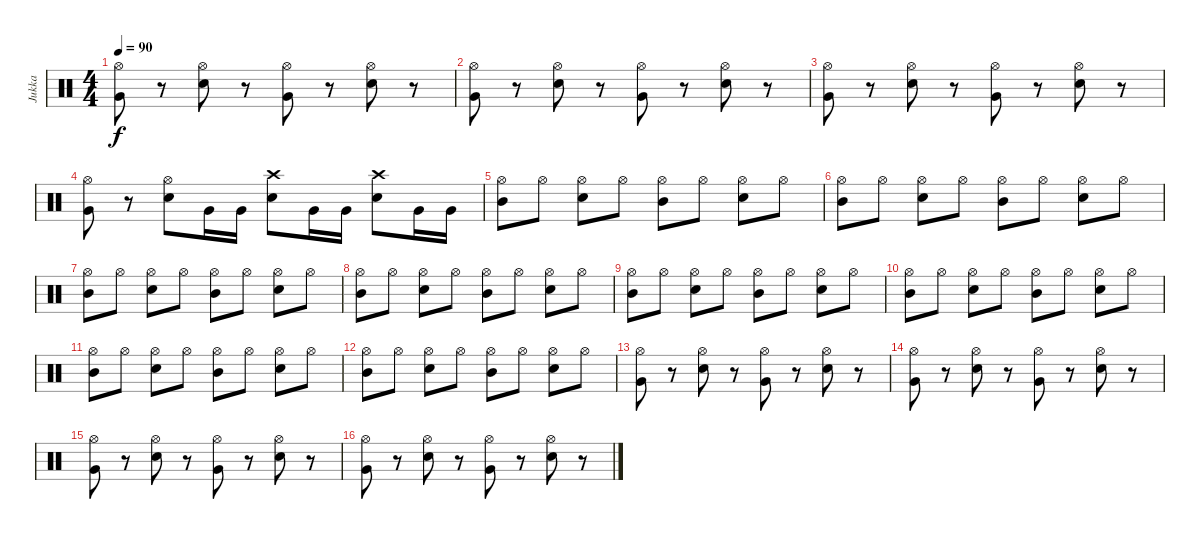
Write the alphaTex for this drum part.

\track ("Jukka" "Jukka") {instrument percussion}
\staff {score}
\articulation defaults
\ts (4 4)
\tempo 90
\clef neutral
\ks c
("Hi-Hat (open)" "Very Low Tom (hit)").8{dy f} r.8 ("Snare (hit) 2" "Hi-Hat (open)").8 r.8 ("Very Low Tom (hit)" "Hi-Hat (open)").8 r.8 ("Snare (hit) 2" "Hi-Hat (open)").8 r.8 |
("Hi-Hat (open)" "Very Low Tom (hit)").8 r.8 ("Snare (hit) 2" "Hi-Hat (open)").8 r.8 ("Very Low Tom (hit)" "Hi-Hat (open)").8 r.8 ("Snare (hit) 2" "Hi-Hat (open)").8 r.8 |
("Hi-Hat (open)" "Very Low Tom (hit)").8 r.8 ("Snare (hit) 2" "Hi-Hat (open)").8 r.8 ("Very Low Tom (hit)" "Hi-Hat (open)").8 r.8 ("Snare (hit) 2" "Hi-Hat (open)").8 r.8 |
("Hi-Hat (open)" "Very Low Tom (hit)").8 r.8 ("Snare (hit) 2" "Hi-Hat (open)").8 "Very Low Tom (hit)".16 "Very Low Tom (hit)".16 ("Snare (hit) 2" "Crash high (hit)").8 "Very Low Tom (hit)".16 "Very Low Tom (hit)".16 ("Snare (hit) 2" "Crash high (hit)").8 "Very Low Tom (hit)".16 "Very Low Tom (hit)".16 |
("Mid Tom (hit)" "Hi-Hat (open)").8 "Hi-Hat (open)".8 ("Hi-Hat (open)" "Snare (hit) 2").8 "Hi-Hat (open)".8 ("Hi-Hat (open)" "Mid Tom (hit)").8 "Hi-Hat (open)".8 ("Hi-Hat (open)" "Snare (hit) 2").8 "Hi-Hat (open)".8 |
("Mid Tom (hit)" "Hi-Hat (open)").8 "Hi-Hat (open)".8 ("Hi-Hat (open)" "Snare (hit) 2").8 "Hi-Hat (open)".8 ("Hi-Hat (open)" "Mid Tom (hit)").8 "Hi-Hat (open)".8 ("Hi-Hat (open)" "Snare (hit) 2").8 "Hi-Hat (open)".8 |
("Mid Tom (hit)" "Hi-Hat (open)").8 "Hi-Hat (open)".8 ("Hi-Hat (open)" "Snare (hit) 2").8 "Hi-Hat (open)".8 ("Hi-Hat (open)" "Mid Tom (hit)").8 "Hi-Hat (open)".8 ("Hi-Hat (open)" "Snare (hit) 2").8 "Hi-Hat (open)".8 |
("Mid Tom (hit)" "Hi-Hat (open)").8 "Hi-Hat (open)".8 ("Hi-Hat (open)" "Snare (hit) 2").8 "Hi-Hat (open)".8 ("Hi-Hat (open)" "Mid Tom (hit)").8 "Hi-Hat (open)".8 ("Hi-Hat (open)" "Snare (hit) 2").8 "Hi-Hat (open)".8 |
("Mid Tom (hit)" "Hi-Hat (open)").8 "Hi-Hat (open)".8 ("Hi-Hat (open)" "Snare (hit) 2").8 "Hi-Hat (open)".8 ("Hi-Hat (open)" "Mid Tom (hit)").8 "Hi-Hat (open)".8 ("Hi-Hat (open)" "Snare (hit) 2").8 "Hi-Hat (open)".8 |
("Mid Tom (hit)" "Hi-Hat (open)").8 "Hi-Hat (open)".8 ("Hi-Hat (open)" "Snare (hit) 2").8 "Hi-Hat (open)".8 ("Hi-Hat (open)" "Mid Tom (hit)").8 "Hi-Hat (open)".8 ("Hi-Hat (open)" "Snare (hit) 2").8 "Hi-Hat (open)".8 |
("Mid Tom (hit)" "Hi-Hat (open)").8 "Hi-Hat (open)".8 ("Hi-Hat (open)" "Snare (hit) 2").8 "Hi-Hat (open)".8 ("Hi-Hat (open)" "Mid Tom (hit)").8 "Hi-Hat (open)".8 ("Hi-Hat (open)" "Snare (hit) 2").8 "Hi-Hat (open)".8 |
("Mid Tom (hit)" "Hi-Hat (open)").8 "Hi-Hat (open)".8 ("Hi-Hat (open)" "Snare (hit) 2").8 "Hi-Hat (open)".8 ("Hi-Hat (open)" "Mid Tom (hit)").8 "Hi-Hat (open)".8 ("Hi-Hat (open)" "Snare (hit) 2").8 "Hi-Hat (open)".8 |
("Hi-Hat (open)" "Very Low Tom (hit)").8 r.8 ("Snare (hit) 2" "Hi-Hat (open)").8 r.8 ("Very Low Tom (hit)" "Hi-Hat (open)").8 r.8 ("Snare (hit) 2" "Hi-Hat (open)").8 r.8 |
("Hi-Hat (open)" "Very Low Tom (hit)").8 r.8 ("Snare (hit) 2" "Hi-Hat (open)").8 r.8 ("Very Low Tom (hit)" "Hi-Hat (open)").8 r.8 ("Snare (hit) 2" "Hi-Hat (open)").8 r.8 |
("Hi-Hat (open)" "Very Low Tom (hit)").8 r.8 ("Snare (hit) 2" "Hi-Hat (open)").8 r.8 ("Very Low Tom (hit)" "Hi-Hat (open)").8 r.8 ("Snare (hit) 2" "Hi-Hat (open)").8 r.8 |
("Hi-Hat (open)" "Very Low Tom (hit)").8 r.8 ("Snare (hit) 2" "Hi-Hat (open)").8 r.8 ("Very Low Tom (hit)" "Hi-Hat (open)").8 r.8 ("Snare (hit) 2" "Hi-Hat (open)").8 r.8
